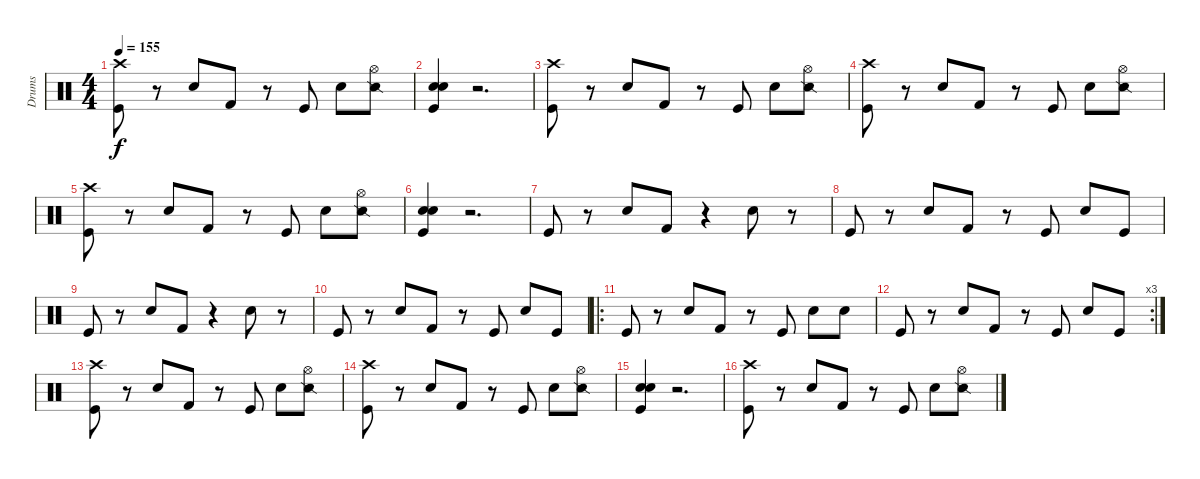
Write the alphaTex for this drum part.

\track ("Drums" "Drums") {instrument percussion}
\staff {score}
\articulation defaults
\ts (4 4)
\tempo 155
\clef neutral
\ks c
("Kick (hit)" "Crash high (hit)").8{dy f} r.8 "Snare (hit) 2".8 "Kick (hit) 2".8 r.8 "Kick (hit)".8 "Snare (hit) 2".8 ("Snare (side stick) 2" "Hi-Hat (open)").8 |
("Kick (hit)" "Snare (hit) 2" "Electric Snare (hit)").4 r.2{d} |
("Kick (hit)" "Crash high (hit)").8 r.8 "Snare (hit) 2".8 "Kick (hit) 2".8 r.8 "Kick (hit)".8 "Snare (hit) 2".8 ("Snare (side stick) 2" "Hi-Hat (open)").8 |
("Kick (hit)" "Crash high (hit)").8 r.8 "Snare (hit) 2".8 "Kick (hit) 2".8 r.8 "Kick (hit)".8 "Snare (hit) 2".8 ("Snare (side stick) 2" "Hi-Hat (open)").8 |
("Kick (hit)" "Crash high (hit)").8 r.8 "Snare (hit) 2".8 "Kick (hit) 2".8 r.8 "Kick (hit)".8 "Snare (hit) 2".8 ("Snare (side stick) 2" "Hi-Hat (open)").8 |
("Kick (hit)" "Snare (hit) 2" "Electric Snare (hit)").4 r.2{d} |
"Kick (hit)".8 r.8 "Snare (hit) 2".8 "Kick (hit) 2".8 r.4 "Snare (hit) 2".8 r.8 |
"Kick (hit)".8 r.8 "Snare (hit) 2".8 "Kick (hit) 2".8 r.8 "Kick (hit)".8 "Snare (hit) 2".8 "Kick (hit)".8 |
"Kick (hit)".8 r.8 "Snare (hit) 2".8 "Kick (hit) 2".8 r.4 "Snare (hit) 2".8 r.8 |
"Kick (hit)".8 r.8 "Snare (hit) 2".8 "Kick (hit) 2".8 r.8 "Kick (hit)".8 "Snare (hit) 2".8 "Kick (hit)".8 |
\ro "Kick (hit)".8
r.8 "Snare (hit) 2".8 "Kick (hit) 2".8 r.8 "Kick (hit)".8 "Snare (hit) 2".8 "Snare (hit) 2".8 |
\rc 3 "Kick (hit)".8
r.8 "Snare (hit) 2".8 "Kick (hit) 2".8 r.8 "Kick (hit)".8 "Snare (hit) 2".8 "Kick (hit)".8 |
("Kick (hit)" "Crash high (hit)").8 r.8 "Snare (hit) 2".8 "Kick (hit) 2".8 r.8 "Kick (hit)".8 "Snare (hit) 2".8 ("Snare (side stick) 2" "Hi-Hat (open)").8 |
("Kick (hit)" "Crash high (hit)").8 r.8 "Snare (hit) 2".8 "Kick (hit) 2".8 r.8 "Kick (hit)".8 "Snare (hit) 2".8 ("Snare (side stick) 2" "Hi-Hat (open)").8 |
("Kick (hit)" "Snare (hit) 2" "Electric Snare (hit)").4 r.2{d} |
("Kick (hit)" "Crash high (hit)").8 r.8 "Snare (hit) 2".8 "Kick (hit) 2".8 r.8 "Kick (hit)".8 "Snare (hit) 2".8 ("Snare (side stick) 2" "Hi-Hat (open)").8
